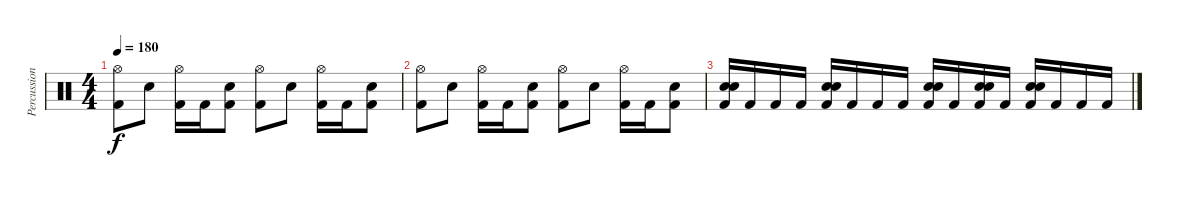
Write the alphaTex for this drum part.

\track ("Percussion" "Percussion") {instrument percussion}
\staff {score}
\articulation defaults
\ts (4 4)
\tempo 180
\clef neutral
\ks c
("Kick (hit) 2" "Hi-Hat (open)").8{dy f} "Snare (hit) 2".8 ("Kick (hit) 2" "Hi-Hat (open)").16 "Kick (hit) 2".16 ("Kick (hit) 2" "Snare (hit) 2").8 ("Kick (hit) 2" "Hi-Hat (open)").8 "Snare (hit) 2".8 ("Kick (hit) 2" "Hi-Hat (open)").16 "Kick (hit) 2".16 ("Kick (hit) 2" "Snare (hit) 2").8 |
("Kick (hit) 2" "Hi-Hat (open)").8 "Snare (hit) 2".8 ("Kick (hit) 2" "Hi-Hat (open)").16 "Kick (hit) 2".16 ("Kick (hit) 2" "Snare (hit) 2").8 ("Kick (hit) 2" "Hi-Hat (open)").8 "Snare (hit) 2".8 ("Kick (hit) 2" "Hi-Hat (open)").16 "Kick (hit) 2".16 ("Kick (hit) 2" "Snare (hit) 2").8 |
("Kick (hit) 2" "Snare (hit) 2" "Electric Snare (hit)").16 "Kick (hit) 2".16 "Kick (hit) 2".16 "Kick (hit) 2".16 ("Kick (hit) 2" "Snare (hit) 2" "Electric Snare (hit)").16 "Kick (hit) 2".16 "Kick (hit) 2".16 "Kick (hit) 2".16 ("Kick (hit) 2" "Snare (hit) 2" "Electric Snare (hit)").16 "Kick (hit) 2".16 ("Kick (hit) 2" "Snare (hit) 2" "Electric Snare (hit)").16 "Kick (hit) 2".16 ("Kick (hit) 2" "Snare (hit) 2" "Electric Snare (hit)").16 "Kick (hit) 2".16 "Kick (hit) 2".16 "Kick (hit) 2".16
